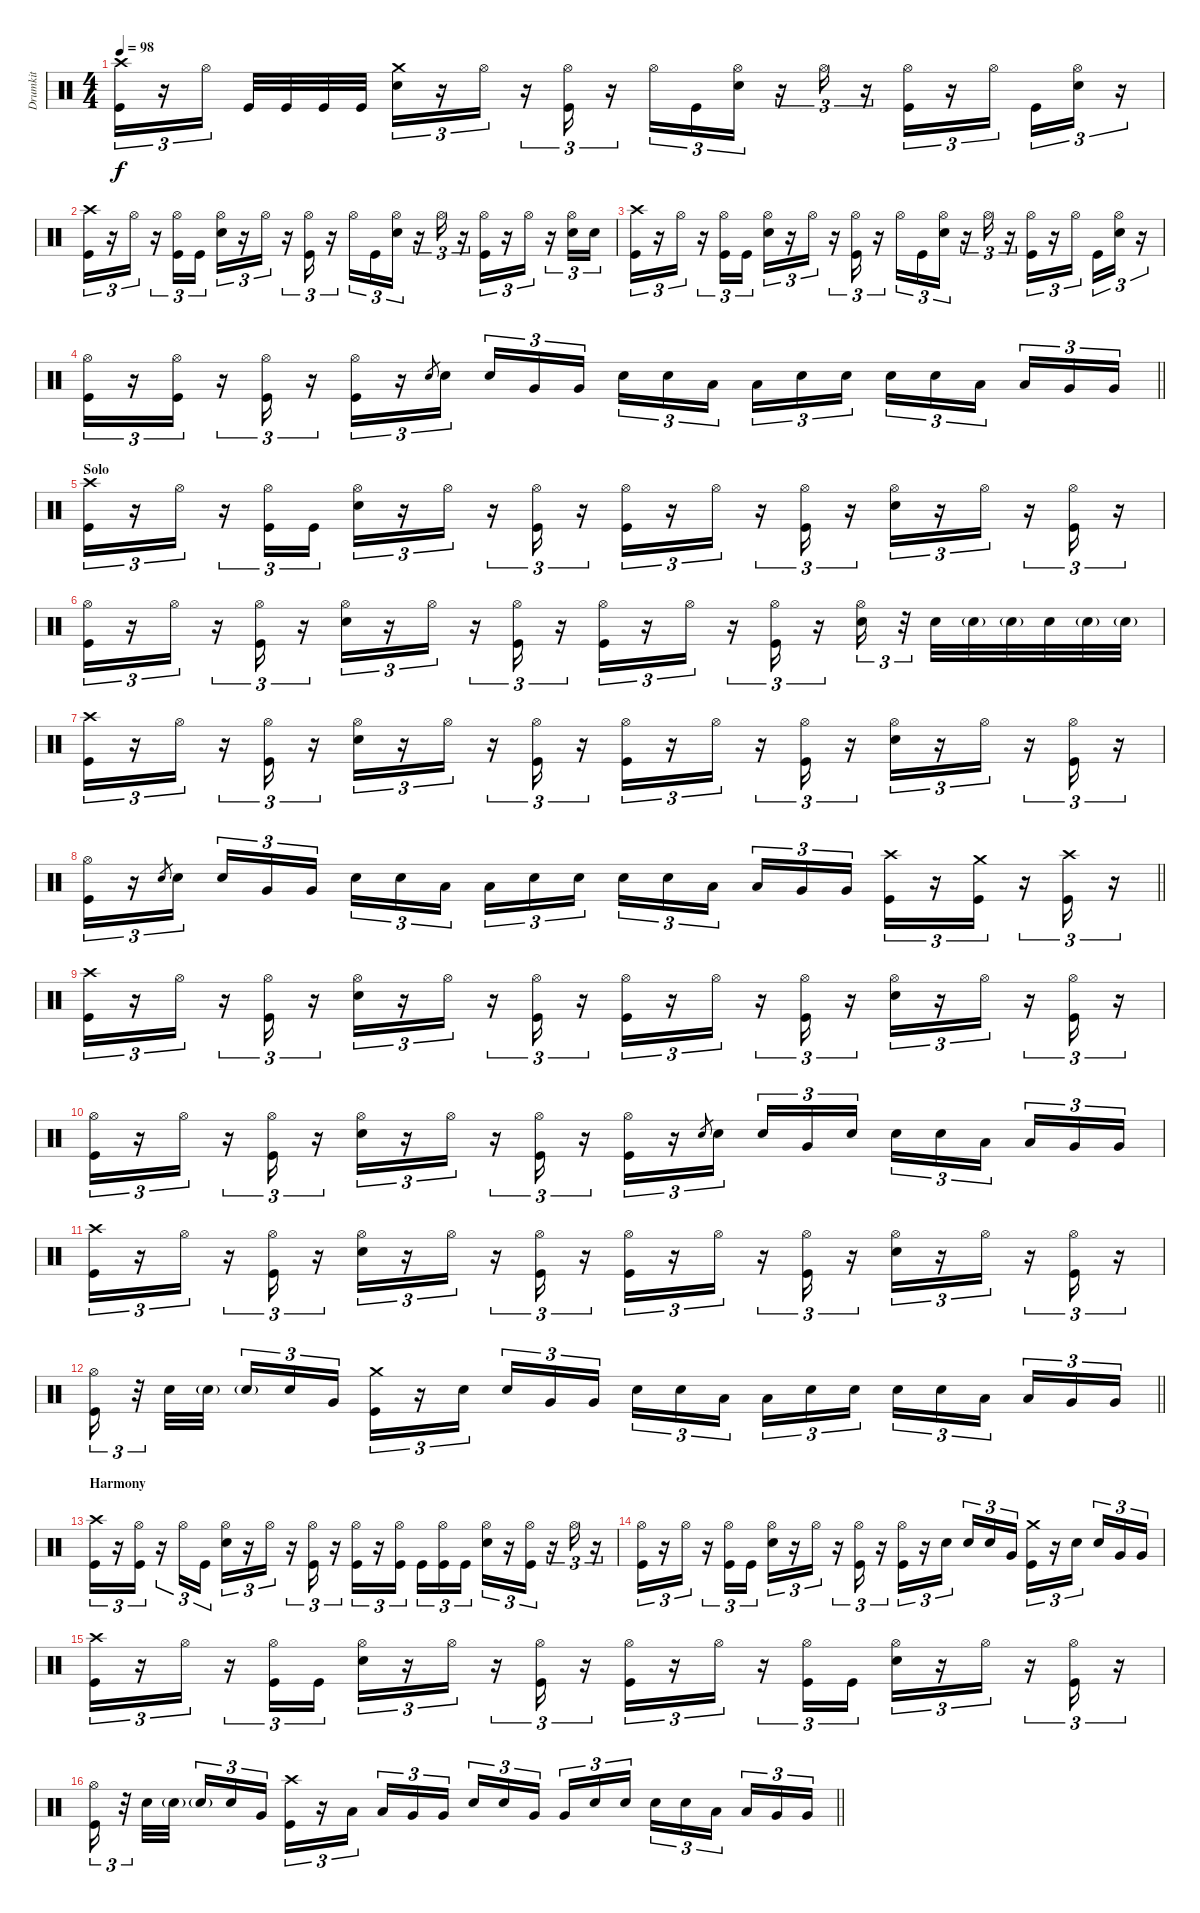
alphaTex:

\track ("Drumkit" "Drumkit") {instrument percussion}
\staff {score}
\articulation defaults
\ts (4 4)
\tempo 98
\clef neutral
\ks c
("Kick (hit)" "Crash high (hit)").16{tu (3 2) dy f} r.16{tu (3 2)} "Hi-Hat (open)".16{tu (3 2)} "Kick (hit)".32 "Kick (hit)".32 "Kick (hit)".32 "Kick (hit)".32 ("Snare (hit) 2" "Crash medium (hit)").16{tu (3 2)} r.16{tu (3 2)} "Hi-Hat (open)".16{tu (3 2)} r.16{tu (3 2)} ("Hi-Hat (open)" "Kick (hit)").16{tu (3 2)} r.16{tu (3 2)} "Hi-Hat (open)".16{tu (3 2)} "Kick (hit)".16{tu (3 2)} ("Hi-Hat (open)" "Snare (hit) 2").16{tu (3 2)} r.16{tu (3 2)} "Hi-Hat (open)".16{tu (3 2)} r.16{tu (3 2)} ("Hi-Hat (open)" "Kick (hit)").16{tu (3 2)} r.16{tu (3 2)} "Hi-Hat (open)".16{tu (3 2)} "Kick (hit)".16{tu (3 2)} ("Hi-Hat (open)" "Snare (hit) 2").16{tu (3 2)} r.16{tu (3 2)} |
("Kick (hit)" "Crash high (hit)").16{tu (3 2)} r.16{tu (3 2)} "Hi-Hat (open)".16{tu (3 2)} r.16{tu (3 2)} ("Hi-Hat (open)" "Kick (hit)").16{tu (3 2)} "Kick (hit)".16{tu (3 2)} ("Snare (hit) 2" "Hi-Hat (open)").16{tu (3 2)} r.16{tu (3 2)} "Hi-Hat (open)".16{tu (3 2)} r.16{tu (3 2)} ("Hi-Hat (open)" "Kick (hit)").16{tu (3 2)} r.16{tu (3 2)} "Hi-Hat (open)".16{tu (3 2)} "Kick (hit)".16{tu (3 2)} ("Hi-Hat (open)" "Snare (hit) 2").16{tu (3 2)} r.16{tu (3 2)} "Hi-Hat (open)".16{tu (3 2)} r.16{tu (3 2)} ("Hi-Hat (open)" "Kick (hit)").16{tu (3 2)} r.16{tu (3 2)} "Hi-Hat (open)".16{tu (3 2)} r.16{tu (3 2)} ("Hi-Hat (open)" "Snare (hit) 2").16{tu (3 2)} "Snare (hit) 2".16{tu (3 2)} |
("Kick (hit)" "Crash high (hit)").16{tu (3 2)} r.16{tu (3 2)} "Hi-Hat (open)".16{tu (3 2)} r.16{tu (3 2)} ("Hi-Hat (open)" "Kick (hit)").16{tu (3 2)} "Kick (hit)".16{tu (3 2)} ("Snare (hit) 2" "Hi-Hat (open)").16{tu (3 2)} r.16{tu (3 2)} "Hi-Hat (open)".16{tu (3 2)} r.16{tu (3 2)} ("Hi-Hat (open)" "Kick (hit)").16{tu (3 2)} r.16{tu (3 2)} "Hi-Hat (open)".16{tu (3 2)} "Kick (hit)".16{tu (3 2)} ("Hi-Hat (open)" "Snare (hit) 2").16{tu (3 2)} r.16{tu (3 2)} "Hi-Hat (open)".16{tu (3 2)} r.16{tu (3 2)} ("Hi-Hat (open)" "Kick (hit)").16{tu (3 2)} r.16{tu (3 2)} "Hi-Hat (open)".16{tu (3 2)} "Kick (hit)".16{tu (3 2)} ("Hi-Hat (open)" "Snare (hit) 2").16{tu (3 2)} r.16{tu (3 2)} |
\barLineRight lightlight
("Kick (hit)" "Hi-Hat (open)").16{tu (3 2)} r.16{tu (3 2)} ("Kick (hit)" "Hi-Hat (open)").16{tu (3 2)} r.16{tu (3 2)} ("Kick (hit)" "Hi-Hat (open)").16{tu (3 2)} r.16{tu (3 2)} ("Hi-Hat (open)" "Kick (hit)").16{tu (3 2)} r.16{tu (3 2)} "Snare (hit)".8{gr} "Snare (hit) 2".16{tu (3 2)} "Snare (hit) 2".16{tu (3 2)} "Very Low Tom (hit)".16{tu (3 2)} "Very Low Tom (hit)".16{tu (3 2)} "Snare (hit) 2".16{tu (3 2)} "Snare (hit) 2".16{tu (3 2)} "Low Tom (hit)".16{tu (3 2)} "Low Tom (hit)".16{tu (3 2)} "Snare (hit) 2".16{tu (3 2)} "Snare (hit) 2".16{tu (3 2)} "Snare (hit) 2".16{tu (3 2)} "Snare (hit) 2".16{tu (3 2)} "Low Tom (hit)".16{tu (3 2)} "Low Tom (hit)".16{tu (3 2)} "Very Low Tom (hit)".16{tu (3 2)} "Very Low Tom (hit)".16{tu (3 2)} |
\section ("" "Solo")
("Kick (hit)" "Crash high (hit)").16{tu (3 2)} r.16{tu (3 2)} "Hi-Hat (open)".16{tu (3 2)} r.16{tu (3 2)} ("Kick (hit)" "Hi-Hat (open)").16{tu (3 2)} "Kick (hit)".16{tu (3 2)} ("Snare (hit) 2" "Hi-Hat (open)").16{tu (3 2)} r.16{tu (3 2)} "Hi-Hat (open)".16{tu (3 2)} r.16{tu (3 2)} ("Kick (hit)" "Hi-Hat (open)").16{tu (3 2)} r.16{tu (3 2)} ("Kick (hit)" "Hi-Hat (open)").16{tu (3 2)} r.16{tu (3 2)} "Hi-Hat (open)".16{tu (3 2)} r.16{tu (3 2)} ("Kick (hit)" "Hi-Hat (open)").16{tu (3 2)} r.16{tu (3 2)} ("Snare (hit) 2" "Hi-Hat (open)").16{tu (3 2)} r.16{tu (3 2)} "Hi-Hat (open)".16{tu (3 2)} r.16{tu (3 2)} ("Kick (hit)" "Hi-Hat (open)").16{tu (3 2)} r.16{tu (3 2)} |
("Kick (hit)" "Hi-Hat (open)").16{tu (3 2)} r.16{tu (3 2)} "Hi-Hat (open)".16{tu (3 2)} r.16{tu (3 2)} ("Kick (hit)" "Hi-Hat (open)").16{tu (3 2)} r.16{tu (3 2)} ("Snare (hit) 2" "Hi-Hat (open)").16{tu (3 2)} r.16{tu (3 2)} "Hi-Hat (open)".16{tu (3 2)} r.16{tu (3 2)} ("Kick (hit)" "Hi-Hat (open)").16{tu (3 2)} r.16{tu (3 2)} ("Kick (hit)" "Hi-Hat (open)").16{tu (3 2)} r.16{tu (3 2)} "Hi-Hat (open)".16{tu (3 2)} r.16{tu (3 2)} ("Kick (hit)" "Hi-Hat (open)").16{tu (3 2)} r.16{tu (3 2)} ("Snare (hit) 2" "Hi-Hat (open)").16{tu (3 2)} r.32{tu (3 2)} "Snare (hit) 2".32 "Snare (hit) 2"{g}.32 "Snare (hit) 2"{g}.32 "Snare (hit) 2".32 "Snare (hit) 2"{g}.32 "Snare (hit) 2"{g}.32 |
("Kick (hit)" "Crash high (hit)").16{tu (3 2)} r.16{tu (3 2)} "Hi-Hat (open)".16{tu (3 2)} r.16{tu (3 2)} ("Kick (hit)" "Hi-Hat (open)").16{tu (3 2)} r.16{tu (3 2)} ("Snare (hit) 2" "Hi-Hat (open)").16{tu (3 2)} r.16{tu (3 2)} "Hi-Hat (open)".16{tu (3 2)} r.16{tu (3 2)} ("Kick (hit)" "Hi-Hat (open)").16{tu (3 2)} r.16{tu (3 2)} ("Kick (hit)" "Hi-Hat (open)").16{tu (3 2)} r.16{tu (3 2)} "Hi-Hat (open)".16{tu (3 2)} r.16{tu (3 2)} ("Kick (hit)" "Hi-Hat (open)").16{tu (3 2)} r.16{tu (3 2)} ("Snare (hit) 2" "Hi-Hat (open)").16{tu (3 2)} r.16{tu (3 2)} "Hi-Hat (open)".16{tu (3 2)} r.16{tu (3 2)} ("Kick (hit)" "Hi-Hat (open)").16{tu (3 2)} r.16{tu (3 2)} |
\barLineRight lightlight
("Kick (hit)" "Hi-Hat (open)").16{tu (3 2)} r.16{tu (3 2)} "Snare (hit)".8{gr} "Snare (hit) 2".16{tu (3 2)} "Snare (hit) 2".16{tu (3 2)} "Very Low Tom (hit)".16{tu (3 2)} "Very Low Tom (hit)".16{tu (3 2)} "Snare (hit) 2".16{tu (3 2)} "Snare (hit) 2".16{tu (3 2)} "Low Tom (hit)".16{tu (3 2)} "Low Tom (hit)".16{tu (3 2)} "Snare (hit) 2".16{tu (3 2)} "Snare (hit) 2".16{tu (3 2)} "Snare (hit) 2".16{tu (3 2)} "Snare (hit) 2".16{tu (3 2)} "Low Tom (hit)".16{tu (3 2)} "Low Tom (hit)".16{tu (3 2)} "Very Low Tom (hit)".16{tu (3 2)} "Very Low Tom (hit)".16{tu (3 2)} ("Crash high (hit)" "Kick (hit)").16{tu (3 2)} r.16{tu (3 2)} ("Crash medium (hit)" "Kick (hit)").16{tu (3 2)} r.16{tu (3 2)} ("Crash high (hit)" "Kick (hit)").16{tu (3 2)} r.16{tu (3 2)} |
("Kick (hit)" "Crash high (hit)").16{tu (3 2)} r.16{tu (3 2)} "Hi-Hat (open)".16{tu (3 2)} r.16{tu (3 2)} ("Kick (hit)" "Hi-Hat (open)").16{tu (3 2)} r.16{tu (3 2)} ("Snare (hit) 2" "Hi-Hat (open)").16{tu (3 2)} r.16{tu (3 2)} "Hi-Hat (open)".16{tu (3 2)} r.16{tu (3 2)} ("Kick (hit)" "Hi-Hat (open)").16{tu (3 2)} r.16{tu (3 2)} ("Kick (hit)" "Hi-Hat (open)").16{tu (3 2)} r.16{tu (3 2)} "Hi-Hat (open)".16{tu (3 2)} r.16{tu (3 2)} ("Kick (hit)" "Hi-Hat (open)").16{tu (3 2)} r.16{tu (3 2)} ("Snare (hit) 2" "Hi-Hat (open)").16{tu (3 2)} r.16{tu (3 2)} "Hi-Hat (open)".16{tu (3 2)} r.16{tu (3 2)} ("Kick (hit)" "Hi-Hat (open)").16{tu (3 2)} r.16{tu (3 2)} |
("Kick (hit)" "Hi-Hat (open)").16{tu (3 2)} r.16{tu (3 2)} "Hi-Hat (open)".16{tu (3 2)} r.16{tu (3 2)} ("Kick (hit)" "Hi-Hat (open)").16{tu (3 2)} r.16{tu (3 2)} ("Snare (hit) 2" "Hi-Hat (open)").16{tu (3 2)} r.16{tu (3 2)} "Hi-Hat (open)".16{tu (3 2)} r.16{tu (3 2)} ("Kick (hit)" "Hi-Hat (open)").16{tu (3 2)} r.16{tu (3 2)} ("Kick (hit)" "Hi-Hat (open)").16{tu (3 2)} r.16{tu (3 2)} "Snare (hit)".8{gr} "Snare (hit) 2".16{tu (3 2)} "Snare (hit) 2".16{tu (3 2)} "Very Low Tom (hit)".16{tu (3 2)} "Snare (hit) 2".16{tu (3 2)} "Snare (hit) 2".16{tu (3 2)} "Snare (hit) 2".16{tu (3 2)} "Low Tom (hit)".16{tu (3 2)} "Low Tom (hit)".16{tu (3 2)} "Very Low Tom (hit)".16{tu (3 2)} "Very Low Tom (hit)".16{tu (3 2)} |
("Kick (hit)" "Crash high (hit)").16{tu (3 2)} r.16{tu (3 2)} "Hi-Hat (open)".16{tu (3 2)} r.16{tu (3 2)} ("Kick (hit)" "Hi-Hat (open)").16{tu (3 2)} r.16{tu (3 2)} ("Snare (hit) 2" "Hi-Hat (open)").16{tu (3 2)} r.16{tu (3 2)} "Hi-Hat (open)".16{tu (3 2)} r.16{tu (3 2)} ("Kick (hit)" "Hi-Hat (open)").16{tu (3 2)} r.16{tu (3 2)} ("Kick (hit)" "Hi-Hat (open)").16{tu (3 2)} r.16{tu (3 2)} "Hi-Hat (open)".16{tu (3 2)} r.16{tu (3 2)} ("Kick (hit)" "Hi-Hat (open)").16{tu (3 2)} r.16{tu (3 2)} ("Snare (hit) 2" "Hi-Hat (open)").16{tu (3 2)} r.16{tu (3 2)} "Hi-Hat (open)".16{tu (3 2)} r.16{tu (3 2)} ("Kick (hit)" "Hi-Hat (open)").16{tu (3 2)} r.16{tu (3 2)} |
\barLineRight lightlight
("Kick (hit)" "Hi-Hat (open)").16{tu (3 2)} r.32{tu (3 2)} "Snare (hit) 2".32 "Snare (hit) 2"{g}.32 "Snare (hit) 2"{g}.16{tu (3 2)} "Snare (hit) 2".16{tu (3 2)} "Very Low Tom (hit)".16{tu (3 2)} ("Crash medium (hit)" "Kick (hit)").16{tu (3 2)} r.16{tu (3 2)} "Snare (hit) 2".16{tu (3 2)} "Snare (hit) 2".16{tu (3 2)} "Very Low Tom (hit)".16{tu (3 2)} "Very Low Tom (hit)".16{tu (3 2)} "Snare (hit) 2".16{tu (3 2)} "Snare (hit) 2".16{tu (3 2)} "Low Tom (hit)".16{tu (3 2)} "Low Tom (hit)".16{tu (3 2)} "Snare (hit) 2".16{tu (3 2)} "Snare (hit) 2".16{tu (3 2)} "Snare (hit) 2".16{tu (3 2)} "Snare (hit) 2".16{tu (3 2)} "Low Tom (hit)".16{tu (3 2)} "Low Tom (hit)".16{tu (3 2)} "Very Low Tom (hit)".16{tu (3 2)} "Very Low Tom (hit)".16{tu (3 2)} |
\section ("" "Harmony")
("Kick (hit)" "Crash high (hit)").16{tu (3 2)} r.16{tu (3 2)} ("Hi-Hat (open)" "Kick (hit)").16{tu (3 2)} r.16{tu (3 2)} "Hi-Hat (open)".16{tu (3 2)} "Kick (hit)".16{tu (3 2)} ("Snare (hit) 2" "Hi-Hat (open)").16{tu (3 2)} r.16{tu (3 2)} "Hi-Hat (open)".16{tu (3 2)} r.16{tu (3 2)} ("Kick (hit)" "Hi-Hat (open)").16{tu (3 2)} r.16{tu (3 2)} ("Kick (hit)" "Hi-Hat (open)").16{tu (3 2)} r.16{tu (3 2)} ("Hi-Hat (open)" "Kick (hit)").16{tu (3 2)} "Kick (hit)".16{tu (3 2)} ("Kick (hit)" "Hi-Hat (open)").16{tu (3 2)} "Kick (hit)".16{tu (3 2)} ("Snare (hit) 2" "Hi-Hat (open)").16{tu (3 2)} r.16{tu (3 2)} ("Hi-Hat (open)" "Kick (hit)").16{tu (3 2)} r.16{tu (3 2)} "Hi-Hat (open)".16{tu (3 2)} r.16{tu (3 2)} |
("Kick (hit)" "Hi-Hat (open)").16{tu (3 2)} r.16{tu (3 2)} "Hi-Hat (open)".16{tu (3 2)} r.16{tu (3 2)} ("Kick (hit)" "Hi-Hat (open)").16{tu (3 2)} "Kick (hit)".16{tu (3 2)} ("Snare (hit) 2" "Hi-Hat (open)").16{tu (3 2)} r.16{tu (3 2)} "Hi-Hat (open)".16{tu (3 2)} r.16{tu (3 2)} ("Kick (hit)" "Hi-Hat (open)").16{tu (3 2)} r.16{tu (3 2)} ("Kick (hit)" "Hi-Hat (open)").16{tu (3 2)} r.16{tu (3 2)} "Snare (hit) 2".16{tu (3 2)} "Snare (hit) 2".16{tu (3 2)} "Snare (hit) 2".16{tu (3 2)} "Very Low Tom (hit)".16{tu (3 2)} ("Kick (hit)" "Crash medium (hit)").16{tu (3 2)} r.16{tu (3 2)} "Snare (hit) 2".16{tu (3 2)} "Snare (hit) 2".16{tu (3 2)} "Very Low Tom (hit)".16{tu (3 2)} "Very Low Tom (hit)".16{tu (3 2)} |
("Kick (hit)" "Crash high (hit)").16{tu (3 2)} r.16{tu (3 2)} "Hi-Hat (open)".16{tu (3 2)} r.16{tu (3 2)} ("Kick (hit)" "Hi-Hat (open)").16{tu (3 2)} "Kick (hit)".16{tu (3 2)} ("Snare (hit) 2" "Hi-Hat (open)").16{tu (3 2)} r.16{tu (3 2)} "Hi-Hat (open)".16{tu (3 2)} r.16{tu (3 2)} ("Kick (hit)" "Hi-Hat (open)").16{tu (3 2)} r.16{tu (3 2)} ("Kick (hit)" "Hi-Hat (open)").16{tu (3 2)} r.16{tu (3 2)} "Hi-Hat (open)".16{tu (3 2)} r.16{tu (3 2)} ("Kick (hit)" "Hi-Hat (open)").16{tu (3 2)} "Kick (hit)".16{tu (3 2)} ("Snare (hit) 2" "Hi-Hat (open)").16{tu (3 2)} r.16{tu (3 2)} "Hi-Hat (open)".16{tu (3 2)} r.16{tu (3 2)} ("Kick (hit)" "Hi-Hat (open)").16{tu (3 2)} r.16{tu (3 2)} |
\barLineRight lightlight
("Kick (hit)" "Hi-Hat (open)").16{tu (3 2)} r.32{tu (3 2)} "Snare (hit) 2".32 "Snare (hit) 2"{g}.32 "Snare (hit) 2"{g}.16{tu (3 2)} "Snare (hit) 2".16{tu (3 2)} "Very Low Tom (hit)".16{tu (3 2)} ("Kick (hit)" "Crash high (hit)").16{tu (3 2)} r.16{tu (3 2)} "Low Tom (hit)".16{tu (3 2)} "Low Tom (hit)".16{tu (3 2)} "Very Low Tom (hit)".16{tu (3 2)} "Very Low Tom (hit)".16{tu (3 2)} "Snare (hit) 2".16{tu (3 2)} "Snare (hit) 2".16{tu (3 2)} "Very Low Tom (hit)".16{tu (3 2)} "Very Low Tom (hit)".16{tu (3 2)} "Snare (hit) 2".16{tu (3 2)} "Snare (hit) 2".16{tu (3 2)} "Snare (hit) 2".16{tu (3 2)} "Snare (hit) 2".16{tu (3 2)} "Low Tom (hit)".16{tu (3 2)} "Low Tom (hit)".16{tu (3 2)} "Very Low Tom (hit)".16{tu (3 2)} "Very Low Tom (hit)".16{tu (3 2)}
